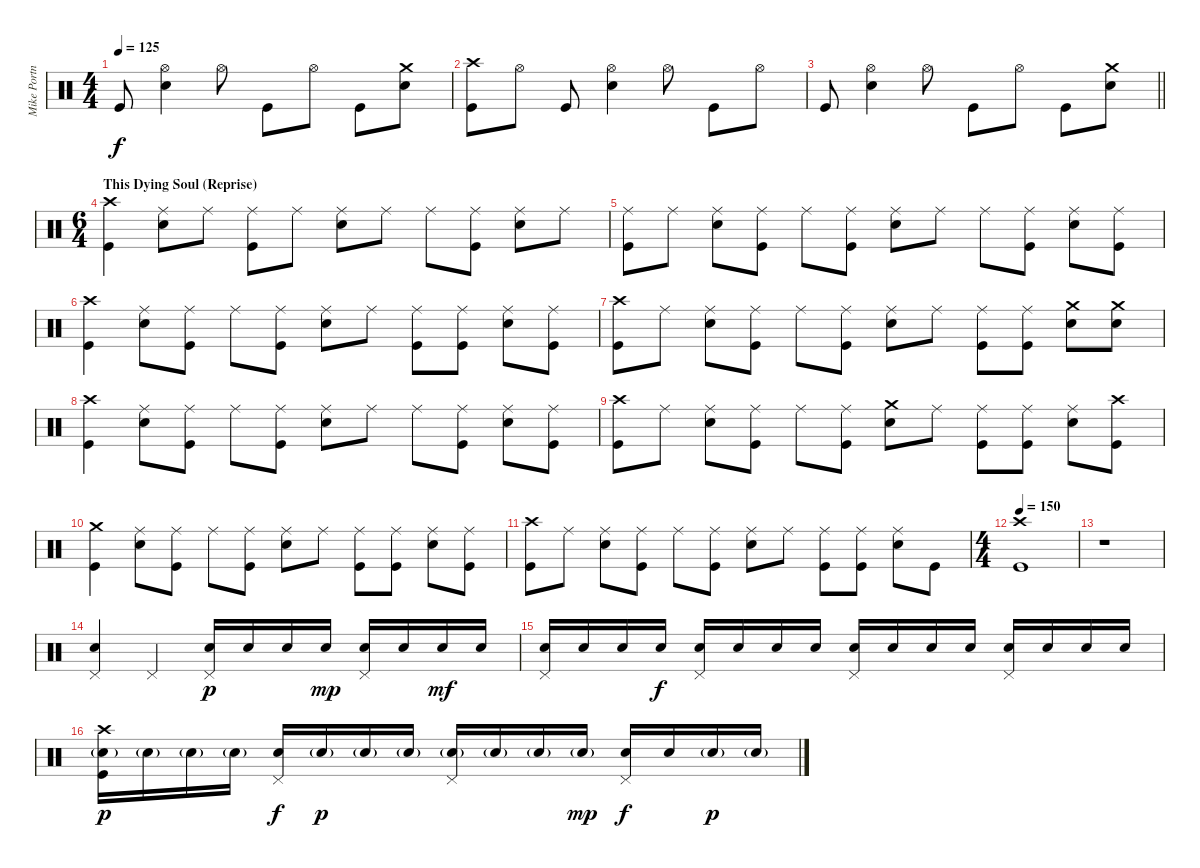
\track ("Mike Portnoy" "Mike Portn") {instrument percussion}
\staff {score}
\articulation defaults
\ts (4 4)
\tempo 125
\clef neutral
\ks c "Kick (hit)".8{dy f}
("Hi-Hat (open)" "Electric Snare (hit)").4 "Hi-Hat (open)".8 "Kick (hit)".8 "Hi-Hat (open)".8 "Kick (hit)".8 ("Crash medium (hit)" "Electric Snare (hit)").8 |
("Crash high (hit)" "Kick (hit)").8 "Hi-Hat (open)".8 "Kick (hit)".8 ("Hi-Hat (open)" "Electric Snare (hit)").4 "Hi-Hat (open)".8 "Kick (hit)".8 "Hi-Hat (open)".8 |
\barLineRight lightlight "Kick (hit)".8
("Hi-Hat (open)" "Electric Snare (hit)").4 "Hi-Hat (open)".8 "Kick (hit)".8 "Hi-Hat (open)".8 "Kick (hit)".8 ("Crash medium (hit)" "Electric Snare (hit)").8 |
\ts (6 4)
\section ("" "This Dying Soul (Reprise)")
("Crash high (hit)" "Kick (hit)").4 ("Ride (middle)" "Electric Snare (hit)").8 "Ride (middle)".8 ("Ride (middle)" "Kick (hit)").8 "Ride (middle)".8 ("Ride (middle)" "Electric Snare (hit)").8 "Ride (middle)".8 "Ride (middle)".8 ("Ride (middle)" "Kick (hit)").8 ("Ride (middle)" "Electric Snare (hit)").8 "Ride (middle)".8 |
("Ride (middle)" "Kick (hit)").8 "Ride (middle)".8 ("Ride (middle)" "Electric Snare (hit)").8 ("Ride (middle)" "Kick (hit)").8 "Ride (middle)".8 ("Ride (middle)" "Kick (hit)").8 ("Ride (middle)" "Electric Snare (hit)").8 "Ride (middle)".8 "Ride (middle)".8 ("Ride (middle)" "Kick (hit)").8 ("Ride (middle)" "Electric Snare (hit)").8 ("Ride (middle)" "Kick (hit)").8 |
("Crash high (hit)" "Kick (hit)").4 ("Ride (middle)" "Electric Snare (hit)").8 ("Ride (middle)" "Kick (hit)").8 "Ride (middle)".8 ("Ride (middle)" "Kick (hit)").8 ("Ride (middle)" "Electric Snare (hit)").8 "Ride (middle)".8 ("Ride (middle)" "Kick (hit)").8 ("Ride (middle)" "Kick (hit)").8 ("Ride (middle)" "Electric Snare (hit)").8 ("Ride (middle)" "Kick (hit)").8 |
("Crash high (hit)" "Kick (hit)").8 "Ride (middle)".8 ("Ride (middle)" "Electric Snare (hit)").8 ("Ride (middle)" "Kick (hit)").8 "Ride (middle)".8 ("Ride (middle)" "Kick (hit)").8 ("Ride (middle)" "Electric Snare (hit)").8 "Ride (middle)".8 ("Ride (middle)" "Kick (hit)").8 ("Ride (middle)" "Kick (hit)").8 ("Crash medium (hit)" "Electric Snare (hit)").8 ("Crash medium (hit)" "Electric Snare (hit)").8 |
("Crash high (hit)" "Kick (hit)").4 ("Ride (middle)" "Electric Snare (hit)").8 ("Ride (middle)" "Kick (hit)").8 "Ride (middle)".8 ("Ride (middle)" "Kick (hit)").8 ("Ride (middle)" "Electric Snare (hit)").8 "Ride (middle)".8 "Ride (middle)".8 ("Ride (middle)" "Kick (hit)").8 ("Ride (middle)" "Electric Snare (hit)").8 ("Ride (middle)" "Kick (hit)").8 |
("Crash high (hit)" "Kick (hit)").8 "Ride (middle)".8 ("Ride (middle)" "Electric Snare (hit)").8 ("Ride (middle)" "Kick (hit)").8 "Ride (middle)".8 ("Ride (middle)" "Kick (hit)").8 ("Crash medium (hit)" "Electric Snare (hit)").8 "Ride (middle)".8 ("Ride (middle)" "Kick (hit)").8 ("Ride (middle)" "Kick (hit)").8 ("Ride (middle)" "Electric Snare (hit)").8 ("Crash high (hit)" "Kick (hit)").8 |
("Crash medium (hit)" "Kick (hit)").4 ("Ride (middle)" "Electric Snare (hit)").8 ("Ride (middle)" "Kick (hit)").8 "Ride (middle)".8 ("Ride (middle)" "Kick (hit)").8 ("Ride (middle)" "Electric Snare (hit)").8 "Ride (middle)".8 ("Ride (middle)" "Kick (hit)").8 ("Ride (middle)" "Kick (hit)").8 ("Ride (middle)" "Electric Snare (hit)").8 ("Ride (middle)" "Kick (hit)").8 |
("Crash high (hit)" "Kick (hit)").8 "Ride (middle)".8 ("Ride (middle)" "Electric Snare (hit)").8 ("Ride (middle)" "Kick (hit)").8 "Ride (middle)".8 ("Ride (middle)" "Kick (hit)").8 ("Ride (middle)" "Electric Snare (hit)").8 "Ride (middle)".8 ("Ride (middle)" "Kick (hit)").8 ("Ride (middle)" "Kick (hit)").8 ("Ride (middle)" "Electric Snare (hit)").8 "Kick (hit)".8 |
\ts (4 4)
\tempo 150
("Crash high (hit)" "Kick (hit)").1 |
r.1 |
("Electric Snare (hit)" "Pedal Hi-Hat (hit)").4 "Pedal Hi-Hat (hit)".4 ("Electric Snare (hit)" "Pedal Hi-Hat (hit)").16{dy p} "Electric Snare (hit)".16 "Electric Snare (hit)".16 "Electric Snare (hit)".16{dy mp} ("Electric Snare (hit)" "Pedal Hi-Hat (hit)").16 "Electric Snare (hit)".16 "Electric Snare (hit)".16{dy mf} "Electric Snare (hit)".16 |
("Electric Snare (hit)" "Pedal Hi-Hat (hit)").16 "Electric Snare (hit)".16 "Electric Snare (hit)".16 "Electric Snare (hit)".16{dy f} ("Electric Snare (hit)" "Pedal Hi-Hat (hit)").16 "Electric Snare (hit)".16 "Electric Snare (hit)".16 "Electric Snare (hit)".16 ("Electric Snare (hit)" "Pedal Hi-Hat (hit)").16 "Electric Snare (hit)".16 "Electric Snare (hit)".16 "Electric Snare (hit)".16 ("Electric Snare (hit)" "Pedal Hi-Hat (hit)").16 "Electric Snare (hit)".16 "Electric Snare (hit)".16 "Electric Snare (hit)".16 |
("Crash high (hit)" "Electric Snare (hit)"{g} "Kick (hit)").16{dy p} "Electric Snare (hit)"{g}.16 "Electric Snare (hit)"{g}.16 "Electric Snare (hit)"{g}.16 ("Electric Snare (hit)" "Pedal Hi-Hat (hit)").16{dy f} "Electric Snare (hit)"{g}.16{dy p} "Electric Snare (hit)"{g}.16 "Electric Snare (hit)"{g}.16 ("Electric Snare (hit)"{g} "Pedal Hi-Hat (hit)").16 "Electric Snare (hit)"{g}.16 "Electric Snare (hit)"{g}.16 "Electric Snare (hit)"{g}.16{dy mp} ("Electric Snare (hit)" "Pedal Hi-Hat (hit)").16{dy f} "Electric Snare (hit)".16 "Electric Snare (hit)"{g}.16{dy p} "Electric Snare (hit)"{g}.16
